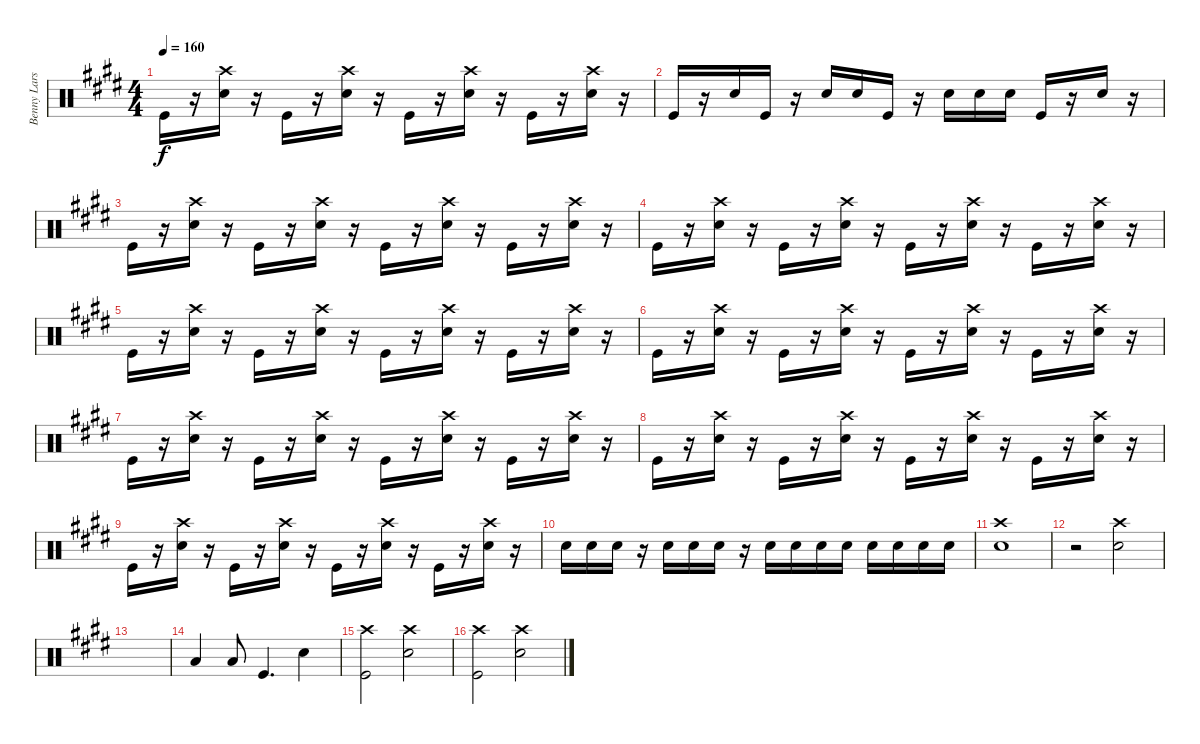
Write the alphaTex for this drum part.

\track ("Benny Larsson" "Benny Lars") {instrument percussion}
\staff {score}
\articulation defaults
\ts (4 4)
\tempo 160
\clef neutral
\ks e "Kick (hit)".16{dy f}
r.16 ("Crash high (hit)" "Snare (hit) 2").16 r.16 "Kick (hit)".16 r.16 ("Crash high (hit)" "Snare (hit) 2").16 r.16 "Kick (hit)".16 r.16 ("Crash high (hit)" "Snare (hit) 2").16 r.16 "Kick (hit)".16 r.16 ("Crash high (hit)" "Snare (hit) 2").16 r.16 |
"Kick (hit)".16 r.16 "Snare (hit) 2".16 "Kick (hit)".16 r.16 "Snare (hit) 2".16 "Snare (hit) 2".16 "Kick (hit)".16 r.16 "Snare (hit) 2".16 "Snare (hit) 2".16 "Snare (hit) 2".16 "Kick (hit)".16 r.16 "Snare (hit) 2".16 r.16 |
"Kick (hit)".16 r.16 ("Crash high (hit)" "Snare (hit) 2").16 r.16 "Kick (hit)".16 r.16 ("Crash high (hit)" "Snare (hit) 2").16 r.16 "Kick (hit)".16 r.16 ("Crash high (hit)" "Snare (hit) 2").16 r.16 "Kick (hit)".16 r.16 ("Crash high (hit)" "Snare (hit) 2").16 r.16 |
"Kick (hit)".16 r.16 ("Crash high (hit)" "Snare (hit) 2").16 r.16 "Kick (hit)".16 r.16 ("Crash high (hit)" "Snare (hit) 2").16 r.16 "Kick (hit)".16 r.16 ("Crash high (hit)" "Snare (hit) 2").16 r.16 "Kick (hit)".16 r.16 ("Crash high (hit)" "Snare (hit) 2").16 r.16 |
"Kick (hit)".16 r.16 ("Crash high (hit)" "Snare (hit) 2").16 r.16 "Kick (hit)".16 r.16 ("Crash high (hit)" "Snare (hit) 2").16 r.16 "Kick (hit)".16 r.16 ("Crash high (hit)" "Snare (hit) 2").16 r.16 "Kick (hit)".16 r.16 ("Crash high (hit)" "Snare (hit) 2").16 r.16 |
"Kick (hit)".16 r.16 ("Crash high (hit)" "Snare (hit) 2").16 r.16 "Kick (hit)".16 r.16 ("Crash high (hit)" "Snare (hit) 2").16 r.16 "Kick (hit)".16 r.16 ("Crash high (hit)" "Snare (hit) 2").16 r.16 "Kick (hit)".16 r.16 ("Crash high (hit)" "Snare (hit) 2").16 r.16 |
"Kick (hit)".16 r.16 ("Crash high (hit)" "Snare (hit) 2").16 r.16 "Kick (hit)".16 r.16 ("Crash high (hit)" "Snare (hit) 2").16 r.16 "Kick (hit)".16 r.16 ("Crash high (hit)" "Snare (hit) 2").16 r.16 "Kick (hit)".16 r.16 ("Crash high (hit)" "Snare (hit) 2").16 r.16 |
"Kick (hit)".16 r.16 ("Crash high (hit)" "Snare (hit) 2").16 r.16 "Kick (hit)".16 r.16 ("Crash high (hit)" "Snare (hit) 2").16 r.16 "Kick (hit)".16 r.16 ("Crash high (hit)" "Snare (hit) 2").16 r.16 "Kick (hit)".16 r.16 ("Crash high (hit)" "Snare (hit) 2").16 r.16 |
"Kick (hit)".16 r.16 ("Crash high (hit)" "Snare (hit) 2").16 r.16 "Kick (hit)".16 r.16 ("Crash high (hit)" "Snare (hit) 2").16 r.16 "Kick (hit)".16 r.16 ("Crash high (hit)" "Snare (hit) 2").16 r.16 "Kick (hit)".16 r.16 ("Crash high (hit)" "Snare (hit) 2").16 r.16 |
"Snare (hit) 2".16 "Snare (hit) 2".16 "Snare (hit) 2".16 r.16 "Snare (hit) 2".16 "Snare (hit) 2".16 "Snare (hit) 2".16 r.16 "Snare (hit) 2".16 "Snare (hit) 2".16 "Snare (hit) 2".16 "Snare (hit) 2".16 "Snare (hit) 2".16 "Snare (hit) 2".16 "Snare (hit) 2".16 "Snare (hit) 2".16 |
("Crash high (hit)" "Snare (hit) 2").1 |
r.2 ("Crash high (hit)" "Snare (hit) 2").2 |
|
"Low Floor Tom (hit)".4 "Low Floor Tom (hit)".8 "Kick (hit)".4{d} "Snare (hit) 2".4 |
("Crash high (hit)" "Kick (hit)").2 ("Crash high (hit)" "Snare (hit) 2").2 |
("Crash high (hit)" "Kick (hit)").2 ("Crash high (hit)" "Snare (hit) 2").2
